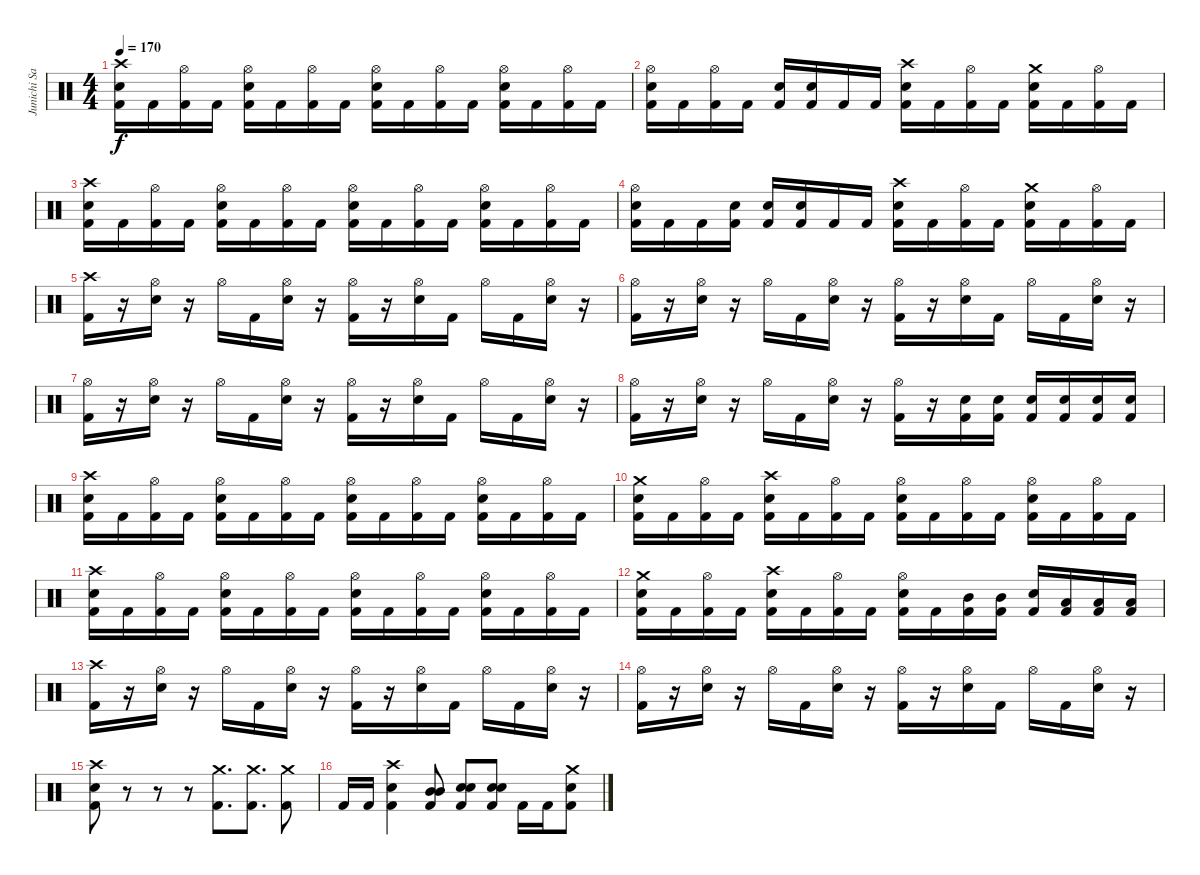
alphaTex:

\track ("Junichi Sato" "Junichi Sa") {instrument percussion}
\staff {score}
\articulation defaults
\ts (4 4)
\tempo 170
\clef neutral
\ks c
("Crash high (hit)" "Electric Snare (hit)" "Kick (hit) 2").16{dy f} "Kick (hit) 2".16 ("Hi-Hat (open)" "Kick (hit) 2").16 "Kick (hit) 2".16 ("Hi-Hat (open)" "Electric Snare (hit)" "Kick (hit) 2").16 "Kick (hit) 2".16 ("Hi-Hat (open)" "Kick (hit) 2").16 "Kick (hit) 2".16 ("Hi-Hat (open)" "Electric Snare (hit)" "Kick (hit) 2").16 "Kick (hit) 2".16 ("Hi-Hat (open)" "Kick (hit) 2").16 "Kick (hit) 2".16 ("Hi-Hat (open)" "Electric Snare (hit)" "Kick (hit) 2").16 "Kick (hit) 2".16 ("Hi-Hat (open)" "Kick (hit) 2").16 "Kick (hit) 2".16 |
("Hi-Hat (open)" "Electric Snare (hit)" "Kick (hit) 2").16 "Kick (hit) 2".16 ("Hi-Hat (open)" "Kick (hit) 2").16 "Kick (hit) 2".16 ("Electric Snare (hit)" "Kick (hit) 2").16 ("Electric Snare (hit)" "Kick (hit) 2").16 "Kick (hit) 2".16 "Kick (hit) 2".16 ("Crash high (hit)" "Electric Snare (hit)" "Kick (hit) 2").16 "Kick (hit) 2".16 ("Hi-Hat (open)" "Kick (hit) 2").16 "Kick (hit) 2".16 ("Crash medium (hit)" "Electric Snare (hit)" "Kick (hit) 2").16 "Kick (hit) 2".16 ("Hi-Hat (open)" "Kick (hit) 2").16 "Kick (hit) 2".16 |
("Crash high (hit)" "Electric Snare (hit)" "Kick (hit) 2").16 "Kick (hit) 2".16 ("Hi-Hat (open)" "Kick (hit) 2").16 "Kick (hit) 2".16 ("Hi-Hat (open)" "Electric Snare (hit)" "Kick (hit) 2").16 "Kick (hit) 2".16 ("Hi-Hat (open)" "Kick (hit) 2").16 "Kick (hit) 2".16 ("Hi-Hat (open)" "Electric Snare (hit)" "Kick (hit) 2").16 "Kick (hit) 2".16 ("Hi-Hat (open)" "Kick (hit) 2").16 "Kick (hit) 2".16 ("Hi-Hat (open)" "Electric Snare (hit)" "Kick (hit) 2").16 "Kick (hit) 2".16 ("Hi-Hat (open)" "Kick (hit) 2").16 "Kick (hit) 2".16 |
("Hi-Hat (open)" "Electric Snare (hit)" "Kick (hit) 2").16 "Kick (hit) 2".16 "Kick (hit) 2".16 ("Electric Snare (hit)" "Kick (hit) 2").16 ("Electric Snare (hit)" "Kick (hit) 2").16 ("Electric Snare (hit)" "Kick (hit) 2").16 "Kick (hit) 2".16 "Kick (hit) 2".16 ("Crash high (hit)" "Electric Snare (hit)" "Kick (hit) 2").16 "Kick (hit) 2".16 ("Hi-Hat (open)" "Kick (hit) 2").16 "Kick (hit) 2".16 ("Crash medium (hit)" "Electric Snare (hit)" "Kick (hit) 2").16 "Kick (hit) 2".16 ("Hi-Hat (open)" "Kick (hit) 2").16 "Kick (hit) 2".16 |
("Crash high (hit)" "Kick (hit) 2").16 r.16 ("Hi-Hat (open)" "Electric Snare (hit)").16 r.16 "Hi-Hat (open)".16 "Kick (hit) 2".16 ("Hi-Hat (open)" "Electric Snare (hit)").16 r.16 ("Hi-Hat (open)" "Kick (hit) 2").16 r.16 ("Hi-Hat (open)" "Electric Snare (hit)").16 "Kick (hit) 2".16 "Hi-Hat (open)".16 "Kick (hit) 2".16 ("Hi-Hat (open)" "Electric Snare (hit)").16 r.16 |
("Hi-Hat (open)" "Kick (hit) 2").16 r.16 ("Hi-Hat (open)" "Electric Snare (hit)").16 r.16 "Hi-Hat (open)".16 "Kick (hit) 2".16 ("Hi-Hat (open)" "Electric Snare (hit)").16 r.16 ("Hi-Hat (open)" "Kick (hit) 2").16 r.16 ("Hi-Hat (open)" "Electric Snare (hit)").16 "Kick (hit) 2".16 "Hi-Hat (open)".16 "Kick (hit) 2".16 ("Hi-Hat (open)" "Electric Snare (hit)").16 r.16 |
("Hi-Hat (open)" "Kick (hit) 2").16 r.16 ("Hi-Hat (open)" "Electric Snare (hit)").16 r.16 "Hi-Hat (open)".16 "Kick (hit) 2".16 ("Hi-Hat (open)" "Electric Snare (hit)").16 r.16 ("Hi-Hat (open)" "Kick (hit) 2").16 r.16 ("Hi-Hat (open)" "Electric Snare (hit)").16 "Kick (hit) 2".16 "Hi-Hat (open)".16 "Kick (hit) 2".16 ("Hi-Hat (open)" "Electric Snare (hit)").16 r.16 |
("Hi-Hat (open)" "Kick (hit) 2").16 r.16 ("Hi-Hat (open)" "Electric Snare (hit)").16 r.16 "Hi-Hat (open)".16 "Kick (hit) 2".16 ("Hi-Hat (open)" "Electric Snare (hit)").16 r.16 ("Hi-Hat (open)" "Kick (hit) 2").16 r.16 ("Electric Snare (hit)" "Kick (hit) 2").16 ("Electric Snare (hit)" "Kick (hit) 2").16 ("Electric Snare (hit)" "Kick (hit) 2").16 ("Electric Snare (hit)" "Kick (hit) 2").16 ("Electric Snare (hit)" "Kick (hit) 2").16 ("Electric Snare (hit)" "Kick (hit) 2").16 |
("Crash high (hit)" "Electric Snare (hit)" "Kick (hit) 2").16 "Kick (hit) 2".16 ("Hi-Hat (open)" "Kick (hit) 2").16 "Kick (hit) 2".16 ("Hi-Hat (open)" "Electric Snare (hit)" "Kick (hit) 2").16 "Kick (hit) 2".16 ("Hi-Hat (open)" "Kick (hit) 2").16 "Kick (hit) 2".16 ("Hi-Hat (open)" "Electric Snare (hit)" "Kick (hit) 2").16 "Kick (hit) 2".16 ("Hi-Hat (open)" "Kick (hit) 2").16 "Kick (hit) 2".16 ("Hi-Hat (open)" "Electric Snare (hit)" "Kick (hit) 2").16 "Kick (hit) 2".16 ("Hi-Hat (open)" "Kick (hit) 2").16 "Kick (hit) 2".16 |
("Crash medium (hit)" "Electric Snare (hit)" "Kick (hit) 2").16 "Kick (hit) 2".16 ("Hi-Hat (open)" "Kick (hit) 2").16 "Kick (hit) 2".16 ("Crash high (hit)" "Electric Snare (hit)" "Kick (hit) 2").16 "Kick (hit) 2".16 ("Hi-Hat (open)" "Kick (hit) 2").16 "Kick (hit) 2".16 ("Hi-Hat (open)" "Electric Snare (hit)" "Kick (hit) 2").16 "Kick (hit) 2".16 ("Hi-Hat (open)" "Kick (hit) 2").16 "Kick (hit) 2".16 ("Hi-Hat (open)" "Electric Snare (hit)" "Kick (hit) 2").16 "Kick (hit) 2".16 ("Hi-Hat (open)" "Kick (hit) 2").16 "Kick (hit) 2".16 |
("Crash high (hit)" "Electric Snare (hit)" "Kick (hit) 2").16 "Kick (hit) 2".16 ("Hi-Hat (open)" "Kick (hit) 2").16 "Kick (hit) 2".16 ("Hi-Hat (open)" "Electric Snare (hit)" "Kick (hit) 2").16 "Kick (hit) 2".16 ("Hi-Hat (open)" "Kick (hit) 2").16 "Kick (hit) 2".16 ("Hi-Hat (open)" "Electric Snare (hit)" "Kick (hit) 2").16 "Kick (hit) 2".16 ("Hi-Hat (open)" "Kick (hit) 2").16 "Kick (hit) 2".16 ("Hi-Hat (open)" "Electric Snare (hit)" "Kick (hit) 2").16 "Kick (hit) 2".16 ("Hi-Hat (open)" "Kick (hit) 2").16 "Kick (hit) 2".16 |
("Crash medium (hit)" "Electric Snare (hit)" "Kick (hit) 2").16 "Kick (hit) 2".16 ("Hi-Hat (open)" "Kick (hit) 2").16 "Kick (hit) 2".16 ("Crash high (hit)" "Electric Snare (hit)" "Kick (hit) 2").16 "Kick (hit) 2".16 ("Hi-Hat (open)" "Kick (hit) 2").16 "Kick (hit) 2".16 ("Hi-Hat (open)" "Electric Snare (hit)" "Kick (hit) 2").16 "Kick (hit) 2".16 ("Mid Tom (hit)" "Kick (hit) 2").16 ("Mid Tom (hit)" "Kick (hit) 2").16 ("Electric Snare (hit)" "Kick (hit) 2").16 ("Low Tom (hit)" "Kick (hit) 2").16 ("Low Tom (hit)" "Kick (hit) 2").16 ("Low Tom (hit)" "Kick (hit) 2").16 |
("Crash high (hit)" "Kick (hit) 2").16 r.16 ("Hi-Hat (open)" "Electric Snare (hit)").16 r.16 "Hi-Hat (open)".16 "Kick (hit) 2".16 ("Hi-Hat (open)" "Electric Snare (hit)").16 r.16 ("Hi-Hat (open)" "Kick (hit) 2").16 r.16 ("Hi-Hat (open)" "Electric Snare (hit)").16 "Kick (hit) 2".16 "Hi-Hat (open)".16 "Kick (hit) 2".16 ("Hi-Hat (open)" "Electric Snare (hit)").16 r.16 |
("Hi-Hat (open)" "Kick (hit) 2").16 r.16 ("Hi-Hat (open)" "Electric Snare (hit)").16 r.16 "Hi-Hat (open)".16 "Kick (hit) 2".16 ("Hi-Hat (open)" "Electric Snare (hit)").16 r.16 ("Hi-Hat (open)" "Kick (hit) 2").16 r.16 ("Hi-Hat (open)" "Electric Snare (hit)").16 "Kick (hit) 2".16 "Hi-Hat (open)".16 "Kick (hit) 2".16 ("Hi-Hat (open)" "Electric Snare (hit)").16 r.16 |
("Crash high (hit)" "Electric Snare (hit)" "Kick (hit) 2").8 r.8 r.8 r.8 ("Crash medium (hit)" "Kick (hit) 2").8{d} ("Crash medium (hit)" "Kick (hit) 2").8{d} ("Crash medium (hit)" "Kick (hit) 2").8 |
"Kick (hit) 2".16 "Kick (hit) 2".16 ("Crash high (hit)" "Electric Snare (hit)" "Kick (hit) 2").4 ("Mid Tom (hit)" "Mid Tom (hit)" "Kick (hit) 2").8 ("Electric Snare (hit)" "Electric Snare (hit)" "Kick (hit) 2").8 ("Electric Snare (hit)" "Electric Snare (hit)" "Kick (hit) 2").8 "Kick (hit) 2".16 "Kick (hit) 2".16 ("Crash medium (hit)" "Electric Snare (hit)" "Kick (hit) 2").8
